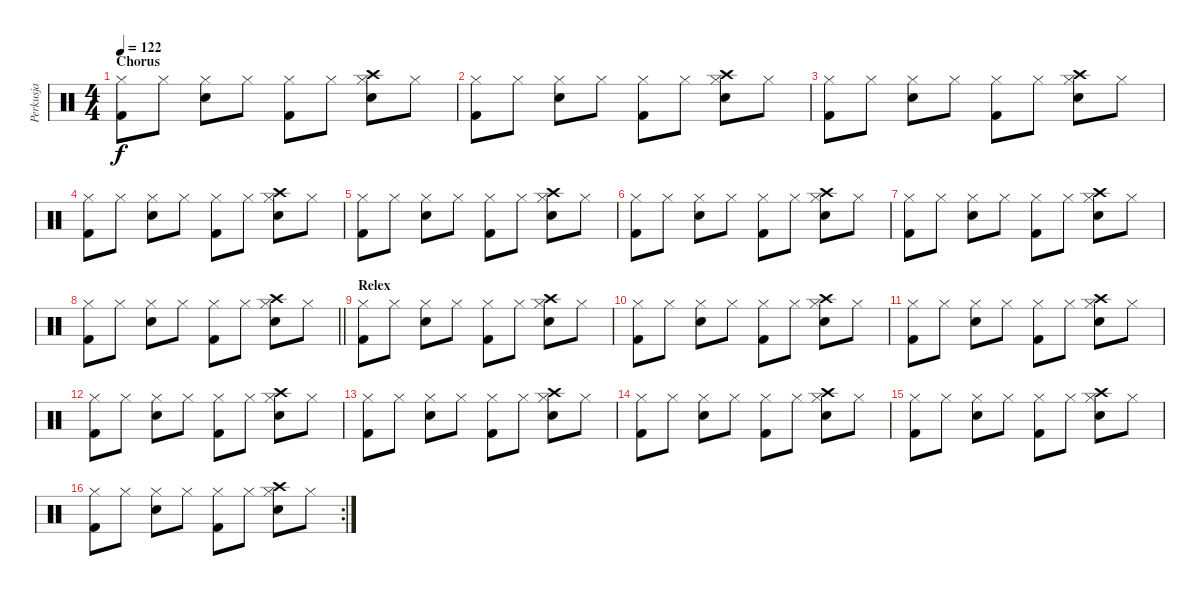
\track ("Perkusja" "Perkusja") {instrument percussion}
\staff {score}
\articulation defaults
\ts (4 4)
\section ("" "Chorus")
\tempo 122
\clef neutral
\ks c
("Hi-Hat (closed)" "Kick (hit) 2").8{dy f} "Hi-Hat (closed)".8 ("Hi-Hat (closed)" "Electric Snare (hit)").8 "Hi-Hat (closed)".8 ("Hi-Hat (closed)" "Kick (hit) 2").8 "Hi-Hat (closed)".8 ("Hi-Hat (closed)" "Electric Snare (hit)" "Crash high (hit)").8 "Hi-Hat (closed)".8 |
("Hi-Hat (closed)" "Kick (hit) 2").8 "Hi-Hat (closed)".8 ("Hi-Hat (closed)" "Electric Snare (hit)").8 "Hi-Hat (closed)".8 ("Hi-Hat (closed)" "Kick (hit) 2").8 "Hi-Hat (closed)".8 ("Hi-Hat (closed)" "Electric Snare (hit)" "Crash high (hit)").8 "Hi-Hat (closed)".8 |
("Hi-Hat (closed)" "Kick (hit) 2").8 "Hi-Hat (closed)".8 ("Hi-Hat (closed)" "Electric Snare (hit)").8 "Hi-Hat (closed)".8 ("Hi-Hat (closed)" "Kick (hit) 2").8 "Hi-Hat (closed)".8 ("Hi-Hat (closed)" "Electric Snare (hit)" "Crash high (hit)").8 "Hi-Hat (closed)".8 |
("Hi-Hat (closed)" "Kick (hit) 2").8 "Hi-Hat (closed)".8 ("Hi-Hat (closed)" "Electric Snare (hit)").8 "Hi-Hat (closed)".8 ("Hi-Hat (closed)" "Kick (hit) 2").8 "Hi-Hat (closed)".8 ("Hi-Hat (closed)" "Electric Snare (hit)" "Crash high (hit)").8 "Hi-Hat (closed)".8 |
("Hi-Hat (closed)" "Kick (hit) 2").8 "Hi-Hat (closed)".8 ("Hi-Hat (closed)" "Electric Snare (hit)").8 "Hi-Hat (closed)".8 ("Hi-Hat (closed)" "Kick (hit) 2").8 "Hi-Hat (closed)".8 ("Hi-Hat (closed)" "Electric Snare (hit)" "Crash high (hit)").8 "Hi-Hat (closed)".8 |
("Hi-Hat (closed)" "Kick (hit) 2").8 "Hi-Hat (closed)".8 ("Hi-Hat (closed)" "Electric Snare (hit)").8 "Hi-Hat (closed)".8 ("Hi-Hat (closed)" "Kick (hit) 2").8 "Hi-Hat (closed)".8 ("Hi-Hat (closed)" "Electric Snare (hit)" "Crash high (hit)").8 "Hi-Hat (closed)".8 |
("Hi-Hat (closed)" "Kick (hit) 2").8 "Hi-Hat (closed)".8 ("Hi-Hat (closed)" "Electric Snare (hit)").8 "Hi-Hat (closed)".8 ("Hi-Hat (closed)" "Kick (hit) 2").8 "Hi-Hat (closed)".8 ("Hi-Hat (closed)" "Electric Snare (hit)" "Crash high (hit)").8 "Hi-Hat (closed)".8 |
\barLineRight lightlight
("Hi-Hat (closed)" "Kick (hit) 2").8 "Hi-Hat (closed)".8 ("Hi-Hat (closed)" "Electric Snare (hit)").8 "Hi-Hat (closed)".8 ("Hi-Hat (closed)" "Kick (hit) 2").8 "Hi-Hat (closed)".8 ("Hi-Hat (closed)" "Electric Snare (hit)" "Crash high (hit)").8 "Hi-Hat (closed)".8 |
\section ("" "Relex")
("Hi-Hat (closed)" "Kick (hit) 2").8 "Hi-Hat (closed)".8 ("Hi-Hat (closed)" "Electric Snare (hit)").8 "Hi-Hat (closed)".8 ("Hi-Hat (closed)" "Kick (hit) 2").8 "Hi-Hat (closed)".8 ("Hi-Hat (closed)" "Electric Snare (hit)" "Crash high (hit)").8 "Hi-Hat (closed)".8 |
("Hi-Hat (closed)" "Kick (hit) 2").8 "Hi-Hat (closed)".8 ("Hi-Hat (closed)" "Electric Snare (hit)").8 "Hi-Hat (closed)".8 ("Hi-Hat (closed)" "Kick (hit) 2").8 "Hi-Hat (closed)".8 ("Hi-Hat (closed)" "Electric Snare (hit)" "Crash high (hit)").8 "Hi-Hat (closed)".8 |
("Hi-Hat (closed)" "Kick (hit) 2").8 "Hi-Hat (closed)".8 ("Hi-Hat (closed)" "Electric Snare (hit)").8 "Hi-Hat (closed)".8 ("Hi-Hat (closed)" "Kick (hit) 2").8 "Hi-Hat (closed)".8 ("Hi-Hat (closed)" "Electric Snare (hit)" "Crash high (hit)").8 "Hi-Hat (closed)".8 |
("Hi-Hat (closed)" "Kick (hit) 2").8 "Hi-Hat (closed)".8 ("Hi-Hat (closed)" "Electric Snare (hit)").8 "Hi-Hat (closed)".8 ("Hi-Hat (closed)" "Kick (hit) 2").8 "Hi-Hat (closed)".8 ("Hi-Hat (closed)" "Electric Snare (hit)" "Crash high (hit)").8 "Hi-Hat (closed)".8 |
("Hi-Hat (closed)" "Kick (hit) 2").8 "Hi-Hat (closed)".8 ("Hi-Hat (closed)" "Electric Snare (hit)").8 "Hi-Hat (closed)".8 ("Hi-Hat (closed)" "Kick (hit) 2").8 "Hi-Hat (closed)".8 ("Hi-Hat (closed)" "Electric Snare (hit)" "Crash high (hit)").8 "Hi-Hat (closed)".8 |
("Hi-Hat (closed)" "Kick (hit) 2").8 "Hi-Hat (closed)".8 ("Hi-Hat (closed)" "Electric Snare (hit)").8 "Hi-Hat (closed)".8 ("Hi-Hat (closed)" "Kick (hit) 2").8 "Hi-Hat (closed)".8 ("Hi-Hat (closed)" "Electric Snare (hit)" "Crash high (hit)").8 "Hi-Hat (closed)".8 |
("Hi-Hat (closed)" "Kick (hit) 2").8 "Hi-Hat (closed)".8 ("Hi-Hat (closed)" "Electric Snare (hit)").8 "Hi-Hat (closed)".8 ("Hi-Hat (closed)" "Kick (hit) 2").8 "Hi-Hat (closed)".8 ("Hi-Hat (closed)" "Electric Snare (hit)" "Crash high (hit)").8 "Hi-Hat (closed)".8 |
\rc 2
("Hi-Hat (closed)" "Kick (hit) 2").8 "Hi-Hat (closed)".8 ("Hi-Hat (closed)" "Electric Snare (hit)").8 "Hi-Hat (closed)".8 ("Hi-Hat (closed)" "Kick (hit) 2").8 "Hi-Hat (closed)".8 ("Hi-Hat (closed)" "Electric Snare (hit)" "Crash high (hit)").8 "Hi-Hat (closed)".8
